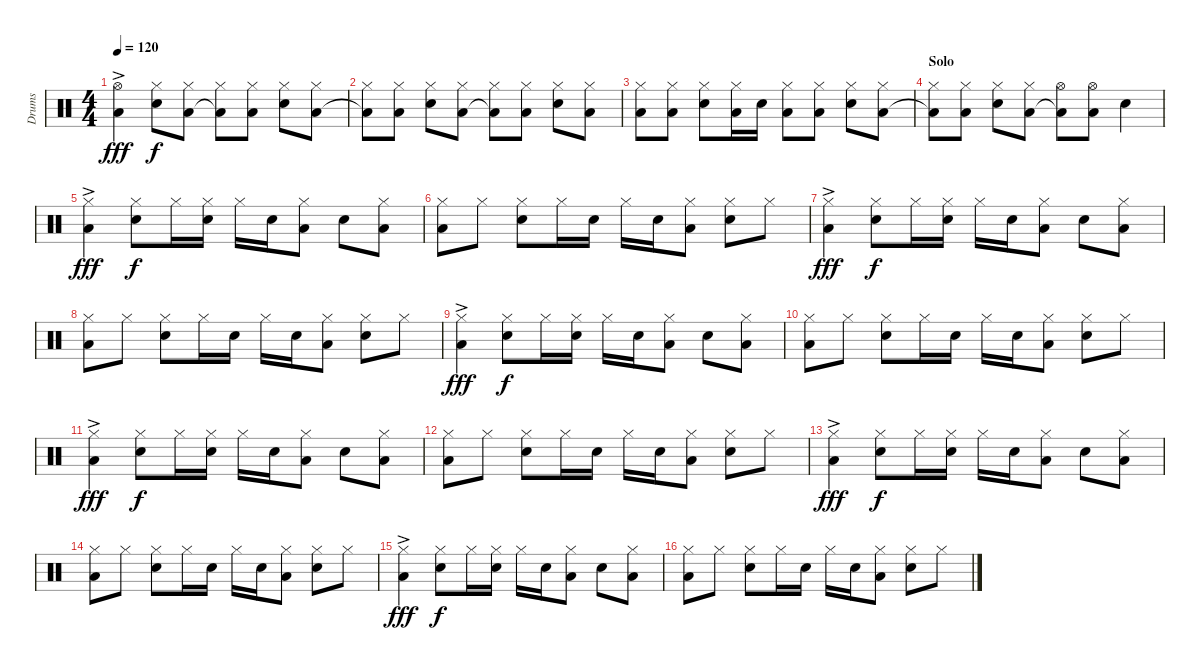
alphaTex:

\track ("Drums" "Drums") {instrument percussion}
\staff {score}
\articulation defaults
\ts (4 4)
\tempo 120
\clef neutral
\ks c
("Hi-Hat (open)"{ac} "Low Floor Tom (hit)"{ac}).4{dy fff} ("Hi-Hat (closed)" "Snare (hit) 2").8{dy f} ("Hi-Hat (closed)" "Low Floor Tom (hit)").8 ("Hi-Hat (closed)" "Low Floor Tom (hit)"{t}).8 ("Hi-Hat (closed)" "Low Floor Tom (hit)").8 ("Hi-Hat (closed)" "Snare (hit) 2").8 ("Hi-Hat (closed)" "Low Floor Tom (hit)").8 |
("Hi-Hat (closed)" "Low Floor Tom (hit)"{t}).8 ("Hi-Hat (closed)" "Low Floor Tom (hit)").8 ("Hi-Hat (closed)" "Snare (hit) 2").8 ("Hi-Hat (closed)" "Low Floor Tom (hit)").8 ("Hi-Hat (closed)" "Low Floor Tom (hit)"{t}).8 ("Hi-Hat (closed)" "Low Floor Tom (hit)").8 ("Hi-Hat (closed)" "Snare (hit) 2").8 ("Hi-Hat (closed)" "Low Floor Tom (hit)").8 |
("Hi-Hat (closed)" "Low Floor Tom (hit)").8 ("Hi-Hat (closed)" "Low Floor Tom (hit)").8 ("Hi-Hat (closed)" "Snare (hit) 2").8 ("Hi-Hat (closed)" "Low Floor Tom (hit)").16 "Snare (hit) 2".16 ("Hi-Hat (closed)" "Low Floor Tom (hit)").8 ("Hi-Hat (closed)" "Low Floor Tom (hit)").8 ("Hi-Hat (closed)" "Snare (hit) 2").8 ("Hi-Hat (closed)" "Low Floor Tom (hit)").8 |
\section ("" "Solo")
("Hi-Hat (closed)" "Low Floor Tom (hit)"{t}).8 ("Hi-Hat (closed)" "Low Floor Tom (hit)").8 ("Hi-Hat (closed)" "Snare (hit) 2").8 ("Hi-Hat (closed)" "Low Floor Tom (hit)").8 ("Hi-Hat (open)" "Low Floor Tom (hit)"{t}).8 ("Hi-Hat (open)" "Low Floor Tom (hit)").8 "Snare (hit) 2".4 |
("Hi-Hat (closed)"{ac} "Low Floor Tom (hit)"{ac}).4{dy fff} ("Hi-Hat (closed)" "Snare (hit) 2").8{dy f} "Hi-Hat (closed)".16 ("Hi-Hat (closed)" "Snare (hit) 2").16 "Hi-Hat (closed)".16 "Snare (hit) 2".16 ("Hi-Hat (closed)" "Low Floor Tom (hit)").8 "Snare (hit) 2".8 ("Hi-Hat (closed)" "Low Floor Tom (hit)").8 |
("Hi-Hat (closed)" "Low Floor Tom (hit)").8 "Hi-Hat (closed)".8 ("Hi-Hat (closed)" "Snare (hit) 2").8 "Hi-Hat (closed)".16 "Snare (hit) 2".16 "Hi-Hat (closed)".16 "Snare (hit) 2".16 ("Hi-Hat (closed)" "Low Floor Tom (hit)").8 ("Hi-Hat (closed)" "Snare (hit) 2").8 "Hi-Hat (closed)".8 |
("Hi-Hat (closed)"{ac} "Low Floor Tom (hit)"{ac}).4{dy fff} ("Hi-Hat (closed)" "Snare (hit) 2").8{dy f} "Hi-Hat (closed)".16 ("Hi-Hat (closed)" "Snare (hit) 2").16 "Hi-Hat (closed)".16 "Snare (hit) 2".16 ("Hi-Hat (closed)" "Low Floor Tom (hit)").8 "Snare (hit) 2".8 ("Hi-Hat (closed)" "Low Floor Tom (hit)").8 |
("Hi-Hat (closed)" "Low Floor Tom (hit)").8 "Hi-Hat (closed)".8 ("Hi-Hat (closed)" "Snare (hit) 2").8 "Hi-Hat (closed)".16 "Snare (hit) 2".16 "Hi-Hat (closed)".16 "Snare (hit) 2".16 ("Hi-Hat (closed)" "Low Floor Tom (hit)").8 ("Hi-Hat (closed)" "Snare (hit) 2").8 "Hi-Hat (closed)".8 |
("Hi-Hat (closed)"{ac} "Low Floor Tom (hit)"{ac}).4{dy fff} ("Hi-Hat (closed)" "Snare (hit) 2").8{dy f} "Hi-Hat (closed)".16 ("Hi-Hat (closed)" "Snare (hit) 2").16 "Hi-Hat (closed)".16 "Snare (hit) 2".16 ("Hi-Hat (closed)" "Low Floor Tom (hit)").8 "Snare (hit) 2".8 ("Hi-Hat (closed)" "Low Floor Tom (hit)").8 |
("Hi-Hat (closed)" "Low Floor Tom (hit)").8 "Hi-Hat (closed)".8 ("Hi-Hat (closed)" "Snare (hit) 2").8 "Hi-Hat (closed)".16 "Snare (hit) 2".16 "Hi-Hat (closed)".16 "Snare (hit) 2".16 ("Hi-Hat (closed)" "Low Floor Tom (hit)").8 ("Hi-Hat (closed)" "Snare (hit) 2").8 "Hi-Hat (closed)".8 |
("Hi-Hat (closed)"{ac} "Low Floor Tom (hit)"{ac}).4{dy fff} ("Hi-Hat (closed)" "Snare (hit) 2").8{dy f} "Hi-Hat (closed)".16 ("Hi-Hat (closed)" "Snare (hit) 2").16 "Hi-Hat (closed)".16 "Snare (hit) 2".16 ("Hi-Hat (closed)" "Low Floor Tom (hit)").8 "Snare (hit) 2".8 ("Hi-Hat (closed)" "Low Floor Tom (hit)").8 |
("Hi-Hat (closed)" "Low Floor Tom (hit)").8 "Hi-Hat (closed)".8 ("Hi-Hat (closed)" "Snare (hit) 2").8 "Hi-Hat (closed)".16 "Snare (hit) 2".16 "Hi-Hat (closed)".16 "Snare (hit) 2".16 ("Hi-Hat (closed)" "Low Floor Tom (hit)").8 ("Hi-Hat (closed)" "Snare (hit) 2").8 "Hi-Hat (closed)".8 |
("Hi-Hat (closed)"{ac} "Low Floor Tom (hit)"{ac}).4{dy fff} ("Hi-Hat (closed)" "Snare (hit) 2").8{dy f} "Hi-Hat (closed)".16 ("Hi-Hat (closed)" "Snare (hit) 2").16 "Hi-Hat (closed)".16 "Snare (hit) 2".16 ("Hi-Hat (closed)" "Low Floor Tom (hit)").8 "Snare (hit) 2".8 ("Hi-Hat (closed)" "Low Floor Tom (hit)").8 |
("Hi-Hat (closed)" "Low Floor Tom (hit)").8 "Hi-Hat (closed)".8 ("Hi-Hat (closed)" "Snare (hit) 2").8 "Hi-Hat (closed)".16 "Snare (hit) 2".16 "Hi-Hat (closed)".16 "Snare (hit) 2".16 ("Hi-Hat (closed)" "Low Floor Tom (hit)").8 ("Hi-Hat (closed)" "Snare (hit) 2").8 "Hi-Hat (closed)".8 |
("Hi-Hat (closed)"{ac} "Low Floor Tom (hit)"{ac}).4{dy fff} ("Hi-Hat (closed)" "Snare (hit) 2").8{dy f} "Hi-Hat (closed)".16 ("Hi-Hat (closed)" "Snare (hit) 2").16 "Hi-Hat (closed)".16 "Snare (hit) 2".16 ("Hi-Hat (closed)" "Low Floor Tom (hit)").8 "Snare (hit) 2".8 ("Hi-Hat (closed)" "Low Floor Tom (hit)").8 |
("Hi-Hat (closed)" "Low Floor Tom (hit)").8 "Hi-Hat (closed)".8 ("Hi-Hat (closed)" "Snare (hit) 2").8 "Hi-Hat (closed)".16 "Snare (hit) 2".16 "Hi-Hat (closed)".16 "Snare (hit) 2".16 ("Hi-Hat (closed)" "Low Floor Tom (hit)").8 ("Hi-Hat (closed)" "Snare (hit) 2").8 "Hi-Hat (closed)".8
